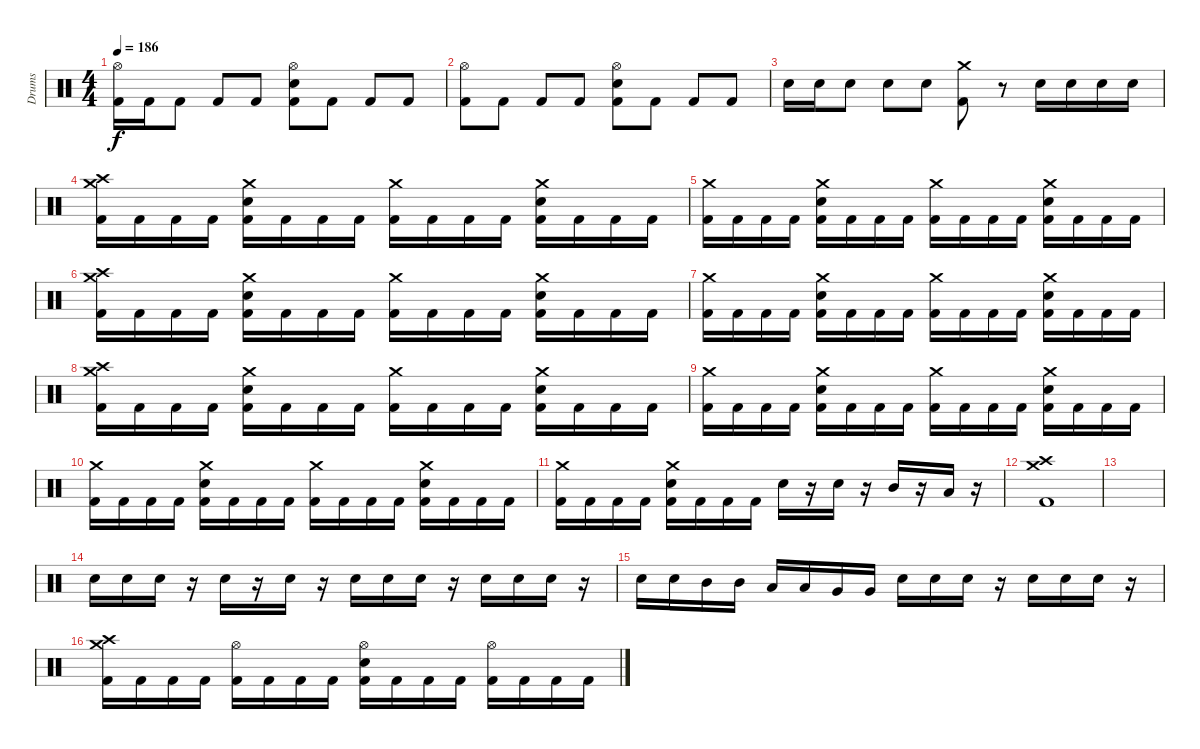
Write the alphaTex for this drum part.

\track ("Drums" "Drums") {instrument percussion}
\staff {score}
\articulation defaults
\ts (4 4)
\tempo 186
\clef neutral
\ks c
("Hi-Hat (open)" "Kick (hit) 2").16{dy f} "Kick (hit) 2".16 "Kick (hit) 2".8 "Kick (hit) 2".8 "Kick (hit) 2".8 ("Hi-Hat (open)" "Snare (hit) 2" "Kick (hit) 2").8 "Kick (hit) 2".8 "Kick (hit) 2".8 "Kick (hit) 2".8 |
("Hi-Hat (open)" "Kick (hit) 2").8 "Kick (hit) 2".8 "Kick (hit) 2".8 "Kick (hit) 2".8 ("Hi-Hat (open)" "Snare (hit) 2" "Kick (hit) 2").8 "Kick (hit) 2".8 "Kick (hit) 2".8 "Kick (hit) 2".8 |
"Snare (hit) 2".16 "Snare (hit) 2".16 "Snare (hit) 2".8 "Snare (hit) 2".8 "Snare (hit) 2".8 ("Crash medium (hit)" "Kick (hit) 2").8 r.8 "Snare (hit) 2".16 "Snare (hit) 2".16 "Snare (hit) 2".16 "Snare (hit) 2".16 |
("Crash high (hit)" "Crash medium (hit)" "Kick (hit) 2").16 "Kick (hit) 2".16 "Kick (hit) 2".16 "Kick (hit) 2".16 ("Crash medium (hit)" "Snare (hit) 2" "Kick (hit) 2").16 "Kick (hit) 2".16 "Kick (hit) 2".16 "Kick (hit) 2".16 ("Crash medium (hit)" "Kick (hit) 2").16 "Kick (hit) 2".16 "Kick (hit) 2".16 "Kick (hit) 2".16 ("Crash medium (hit)" "Snare (hit) 2" "Kick (hit) 2").16 "Kick (hit) 2".16 "Kick (hit) 2".16 "Kick (hit) 2".16 |
("Crash medium (hit)" "Kick (hit) 2").16 "Kick (hit) 2".16 "Kick (hit) 2".16 "Kick (hit) 2".16 ("Crash medium (hit)" "Snare (hit) 2" "Kick (hit) 2").16 "Kick (hit) 2".16 "Kick (hit) 2".16 "Kick (hit) 2".16 ("Crash medium (hit)" "Kick (hit) 2").16 "Kick (hit) 2".16 "Kick (hit) 2".16 "Kick (hit) 2".16 ("Crash medium (hit)" "Snare (hit) 2" "Kick (hit) 2").16 "Kick (hit) 2".16 "Kick (hit) 2".16 "Kick (hit) 2".16 |
("Crash high (hit)" "Crash medium (hit)" "Kick (hit) 2").16 "Kick (hit) 2".16 "Kick (hit) 2".16 "Kick (hit) 2".16 ("Crash medium (hit)" "Snare (hit) 2" "Kick (hit) 2").16 "Kick (hit) 2".16 "Kick (hit) 2".16 "Kick (hit) 2".16 ("Crash medium (hit)" "Kick (hit) 2").16 "Kick (hit) 2".16 "Kick (hit) 2".16 "Kick (hit) 2".16 ("Crash medium (hit)" "Snare (hit) 2" "Kick (hit) 2").16 "Kick (hit) 2".16 "Kick (hit) 2".16 "Kick (hit) 2".16 |
("Crash medium (hit)" "Kick (hit) 2").16 "Kick (hit) 2".16 "Kick (hit) 2".16 "Kick (hit) 2".16 ("Crash medium (hit)" "Snare (hit) 2" "Kick (hit) 2").16 "Kick (hit) 2".16 "Kick (hit) 2".16 "Kick (hit) 2".16 ("Crash medium (hit)" "Kick (hit) 2").16 "Kick (hit) 2".16 "Kick (hit) 2".16 "Kick (hit) 2".16 ("Crash medium (hit)" "Snare (hit) 2" "Kick (hit) 2").16 "Kick (hit) 2".16 "Kick (hit) 2".16 "Kick (hit) 2".16 |
("Crash high (hit)" "Crash medium (hit)" "Kick (hit) 2").16 "Kick (hit) 2".16 "Kick (hit) 2".16 "Kick (hit) 2".16 ("Crash medium (hit)" "Snare (hit) 2" "Kick (hit) 2").16 "Kick (hit) 2".16 "Kick (hit) 2".16 "Kick (hit) 2".16 ("Crash medium (hit)" "Kick (hit) 2").16 "Kick (hit) 2".16 "Kick (hit) 2".16 "Kick (hit) 2".16 ("Crash medium (hit)" "Snare (hit) 2" "Kick (hit) 2").16 "Kick (hit) 2".16 "Kick (hit) 2".16 "Kick (hit) 2".16 |
("Crash medium (hit)" "Kick (hit) 2").16 "Kick (hit) 2".16 "Kick (hit) 2".16 "Kick (hit) 2".16 ("Crash medium (hit)" "Snare (hit) 2" "Kick (hit) 2").16 "Kick (hit) 2".16 "Kick (hit) 2".16 "Kick (hit) 2".16 ("Crash medium (hit)" "Kick (hit) 2").16 "Kick (hit) 2".16 "Kick (hit) 2".16 "Kick (hit) 2".16 ("Crash medium (hit)" "Snare (hit) 2" "Kick (hit) 2").16 "Kick (hit) 2".16 "Kick (hit) 2".16 "Kick (hit) 2".16 |
("Crash medium (hit)" "Kick (hit) 2").16 "Kick (hit) 2".16 "Kick (hit) 2".16 "Kick (hit) 2".16 ("Crash medium (hit)" "Snare (hit) 2" "Kick (hit) 2").16 "Kick (hit) 2".16 "Kick (hit) 2".16 "Kick (hit) 2".16 ("Crash medium (hit)" "Kick (hit) 2").16 "Kick (hit) 2".16 "Kick (hit) 2".16 "Kick (hit) 2".16 ("Crash medium (hit)" "Snare (hit) 2" "Kick (hit) 2").16 "Kick (hit) 2".16 "Kick (hit) 2".16 "Kick (hit) 2".16 |
("Crash medium (hit)" "Kick (hit) 2").16 "Kick (hit) 2".16 "Kick (hit) 2".16 "Kick (hit) 2".16 ("Crash medium (hit)" "Snare (hit) 2" "Kick (hit) 2").16 "Kick (hit) 2".16 "Kick (hit) 2".16 "Kick (hit) 2".16 "Snare (hit) 2".16 r.16 "Snare (hit) 2".16 r.16 "Mid Tom (hit)".16 r.16 "Low Tom (hit)".16 r.16 |
("Crash high (hit)" "Crash medium (hit)" "Kick (hit) 2").1 |
|
"Snare (hit) 2".16 "Snare (hit) 2".16 "Snare (hit) 2".16 r.16 "Snare (hit) 2".16 r.16 "Snare (hit) 2".16 r.16 "Snare (hit) 2".16 "Snare (hit) 2".16 "Snare (hit) 2".16 r.16 "Snare (hit) 2".16 "Snare (hit) 2".16 "Snare (hit) 2".16 r.16 |
"Snare (hit) 2".16 "Snare (hit) 2".16 "Mid Tom (hit)".16 "Mid Tom (hit)".16 "Low Tom (hit)".16 "Low Tom (hit)".16 "Very Low Tom (hit)".16 "Very Low Tom (hit)".16 "Snare (hit) 2".16 "Snare (hit) 2".16 "Snare (hit) 2".16 r.16 "Snare (hit) 2".16 "Snare (hit) 2".16 "Snare (hit) 2".16 r.16 |
("Crash high (hit)" "Crash medium (hit)" "Kick (hit) 2").16 "Kick (hit) 2".16 "Kick (hit) 2".16 "Kick (hit) 2".16 ("Hi-Hat (open)" "Kick (hit) 2").16 "Kick (hit) 2".16 "Kick (hit) 2".16 "Kick (hit) 2".16 ("Hi-Hat (open)" "Snare (hit) 2" "Kick (hit) 2").16 "Kick (hit) 2".16 "Kick (hit) 2".16 "Kick (hit) 2".16 ("Hi-Hat (open)" "Kick (hit) 2").16 "Kick (hit) 2".16 "Kick (hit) 2".16 "Kick (hit) 2".16
